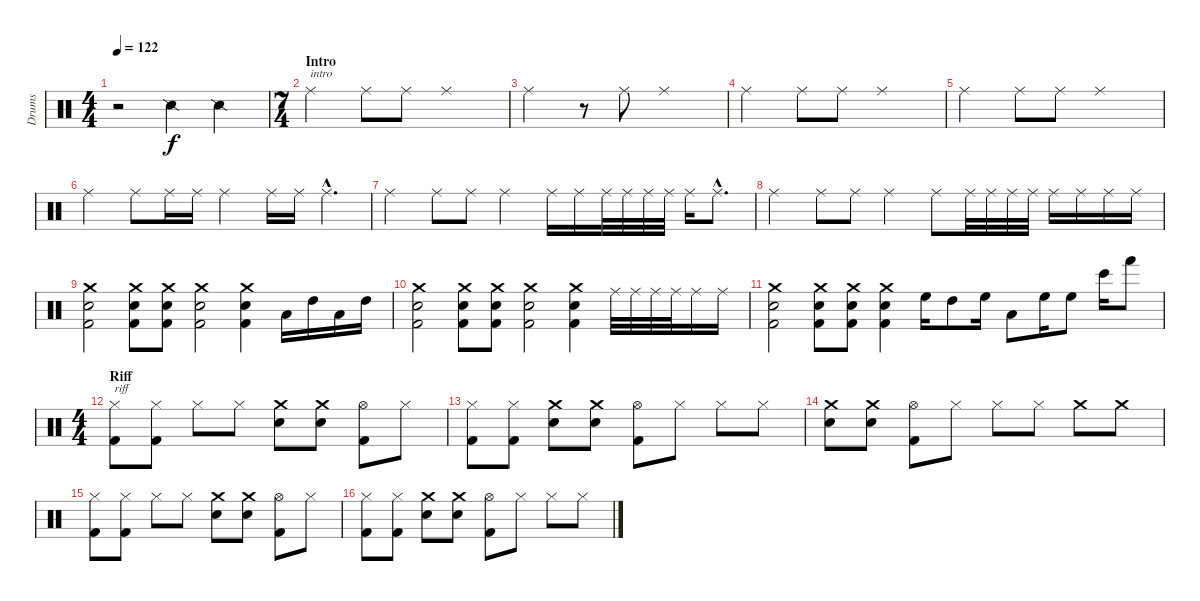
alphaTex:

\track ("Drums" "Drums") {instrument percussion}
\staff {score}
\articulation defaults
\ts (4 4)
\tempo 122
\clef neutral
\ks c
r.2{dy f} "Snare (side stick) 2".4 "Snare (side stick) 2".4 |
\ts (7 4)
\section ("" "Intro")
"Ride (middle)".2{txt "intro"} "Ride (middle)".8 "Ride (middle)".8 "Ride (middle)".1 |
"Ride (middle)".2 r.8 "Ride (middle)".8 "Ride (middle)".1 |
"Ride (middle)".2 "Ride (middle)".8 "Ride (middle)".8 "Ride (middle)".1 |
"Ride (middle)".2 "Ride (middle)".8 "Ride (middle)".8 "Ride (middle)".1 |
"Ride (middle)".2 "Ride (middle)".8 "Ride (middle)".16 "Ride (middle)".16 "Ride (middle)".2 "Ride (middle)".16 "Ride (middle)".16 "Ride (middle)"{hac}.4{d} |
"Ride (middle)".2 "Ride (middle)".8 "Ride (middle)".8 "Ride (middle)".2 "Ride (middle)".16 "Ride (middle)".16 "Ride (middle)".32 "Ride (middle)".32 "Ride (middle)".32 "Ride (middle)".32 "Ride (middle)".16 "Ride (middle)"{hac}.8{d} |
"Ride (middle)".2 "Ride (middle)".8 "Ride (middle)".8 "Ride (middle)".2 "Ride (middle)".8 "Ride (middle)".32 "Ride (middle)".32 "Ride (middle)".32 "Ride (middle)".32 "Ride (middle)".16 "Ride (middle)".16 "Ride (middle)".16 "Ride (middle)".16 |
("Crash medium (hit)" "Snare (hit) 2" "Kick (hit) 2").2 ("Crash medium (hit)" "Snare (hit) 2" "Kick (hit) 2").8 ("Crash medium (hit)" "Snare (hit) 2" "Kick (hit) 2").8 ("Crash medium (hit)" "Snare (hit) 2" "Kick (hit) 2").2 ("Crash medium (hit)" "Snare (hit) 2" "Kick (hit) 2").4 "Low Tom (hit)".16 "High Tom (hit)".16 "Low Tom (hit)".16 "High Tom (hit)".16 |
("Crash medium (hit)" "Snare (hit) 2" "Kick (hit) 2").2 ("Crash medium (hit)" "Snare (hit) 2" "Kick (hit) 2").8 ("Crash medium (hit)" "Snare (hit) 2" "Kick (hit) 2").8 ("Crash medium (hit)" "Snare (hit) 2" "Kick (hit) 2").2 ("Crash medium (hit)" "Snare (hit) 2" "Kick (hit) 2").4 "Ride (middle)".32 "Ride (middle)".32 "Ride (middle)".32 "Ride (middle)".32 "Ride (middle)".16 "Ride (middle)".16 |
("Crash medium (hit)" "Snare (hit) 2" "Kick (hit) 2").2 ("Crash medium (hit)" "Snare (hit) 2" "Kick (hit) 2").8 ("Crash medium (hit)" "Snare (hit) 2" "Kick (hit) 2").8 ("Crash medium (hit)" "Snare (hit) 2" "Kick (hit) 2").4 "High Floor Tom (hit)".16 "High Tom (hit)".8 "High Floor Tom (hit)".16 "Low Tom (hit)".8 "High Floor Tom (hit)".16 "High Floor Tom (hit)".8 "Bongo High (hit)".16 "Hand (hit)".8 |
\ts (4 4)
\section ("" "Riff")
("Hi-Hat (closed)" "Kick (hit) 2").8{txt "riff"} ("Hi-Hat (closed)" "Kick (hit) 2").8 "Hi-Hat (closed)".8 "Hi-Hat (closed)".8 ("Crash medium (hit)" "Snare (hit) 2").8 ("Crash medium (hit)" "Snare (hit) 2").8 ("Hi-Hat (open)" "Kick (hit) 2").8 "Hi-Hat (closed)".8 |
("Hi-Hat (closed)" "Kick (hit) 2").8 ("Hi-Hat (closed)" "Kick (hit) 2").8 ("Crash medium (hit)" "Snare (hit) 2").8 ("Crash medium (hit)" "Snare (hit) 2").8 ("Hi-Hat (open)" "Kick (hit) 2").8 "Hi-Hat (closed)".8 "Hi-Hat (closed)".8 "Hi-Hat (closed)".8 |
("Crash medium (hit)" "Snare (hit) 2").8 ("Crash medium (hit)" "Snare (hit) 2").8 ("Hi-Hat (open)" "Kick (hit) 2").8 "Hi-Hat (closed)".8 "Hi-Hat (closed)".8 "Hi-Hat (closed)".8 "Crash medium (hit)".8 "Crash medium (hit)".8 |
("Hi-Hat (closed)" "Kick (hit) 2").8 ("Hi-Hat (closed)" "Kick (hit) 2").8 "Hi-Hat (closed)".8 "Hi-Hat (closed)".8 ("Crash medium (hit)" "Snare (hit) 2").8 ("Crash medium (hit)" "Snare (hit) 2").8 ("Hi-Hat (open)" "Kick (hit) 2").8 "Hi-Hat (closed)".8 |
("Hi-Hat (closed)" "Kick (hit) 2").8 ("Hi-Hat (closed)" "Kick (hit) 2").8 ("Crash medium (hit)" "Snare (hit) 2").8 ("Crash medium (hit)" "Snare (hit) 2").8 ("Hi-Hat (open)" "Kick (hit) 2").8 "Hi-Hat (closed)".8 "Hi-Hat (closed)".8 "Hi-Hat (closed)".8
